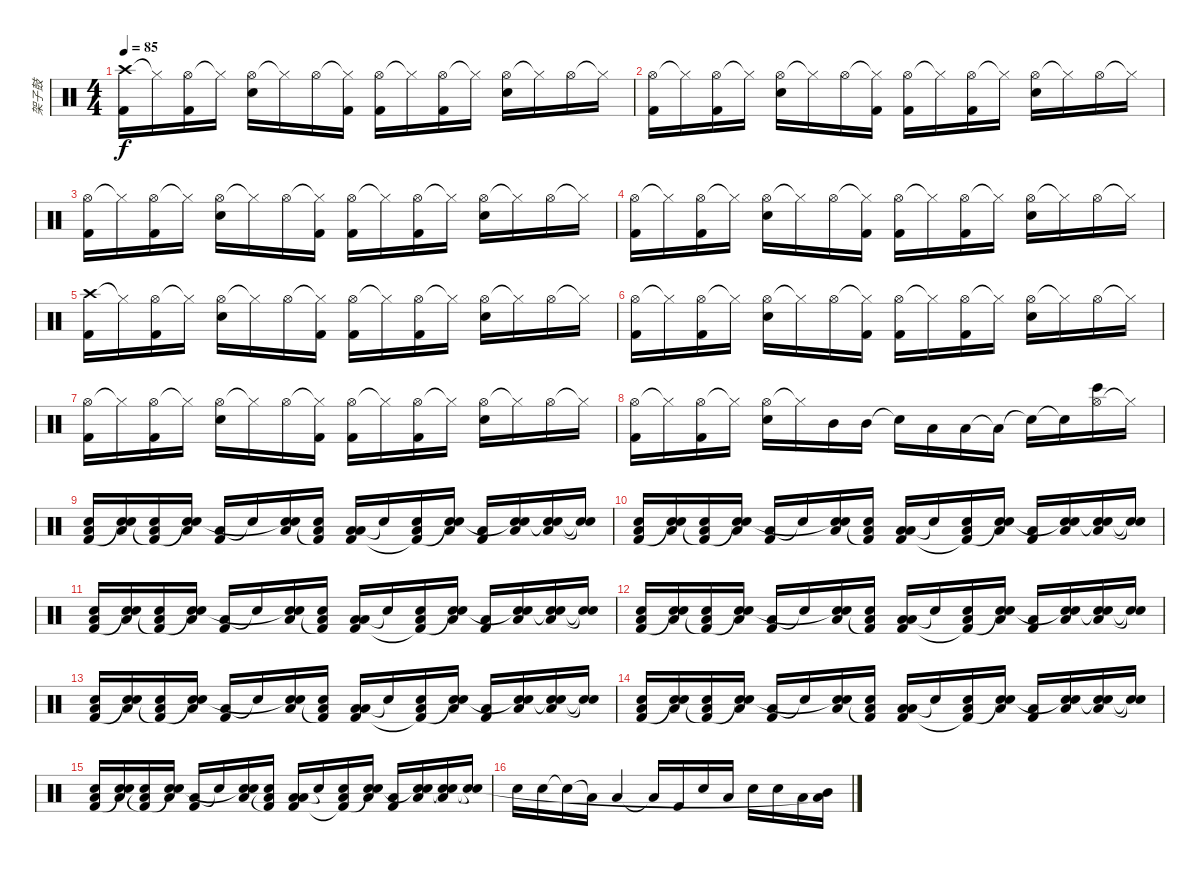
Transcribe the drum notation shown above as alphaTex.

\track ("架子鼓" "架子鼓") {instrument percussion}
\staff {score}
\articulation defaults
\ts (4 4)
\tempo 85
\clef neutral
\ks c
("Crash high (hit)" "Kick (hit) 2").16{dy f} "Hi-Hat (closed)"{t}.16 ("Hi-Hat (open)" "Kick (hit) 2").16 "Hi-Hat (closed)"{t}.16 ("Hi-Hat (open)" "Snare (hit) 2").16 "Hi-Hat (closed)"{t}.16 "Hi-Hat (open)".16 ("Hi-Hat (closed)"{t} "Kick (hit) 2").16 ("Hi-Hat (open)" "Kick (hit) 2").16 "Hi-Hat (closed)"{t}.16 ("Hi-Hat (open)" "Kick (hit) 2").16 "Hi-Hat (closed)"{t}.16 ("Hi-Hat (open)" "Snare (hit) 2").16 "Hi-Hat (closed)"{t}.16 "Hi-Hat (open)".16 "Hi-Hat (closed)"{t}.16 |
("Hi-Hat (open)" "Kick (hit) 2").16 "Hi-Hat (closed)"{t}.16 ("Hi-Hat (open)" "Kick (hit) 2").16 "Hi-Hat (closed)"{t}.16 ("Hi-Hat (open)" "Snare (hit) 2").16 "Hi-Hat (closed)"{t}.16 "Hi-Hat (open)".16 ("Hi-Hat (closed)"{t} "Kick (hit) 2").16 ("Hi-Hat (open)" "Kick (hit) 2").16 "Hi-Hat (closed)"{t}.16 ("Hi-Hat (open)" "Kick (hit) 2").16 "Hi-Hat (closed)"{t}.16 ("Hi-Hat (open)" "Snare (hit) 2").16 "Hi-Hat (closed)"{t}.16 "Hi-Hat (open)".16 "Hi-Hat (closed)"{t}.16 |
("Hi-Hat (open)" "Kick (hit) 2").16 "Hi-Hat (closed)"{t}.16 ("Hi-Hat (open)" "Kick (hit) 2").16 "Hi-Hat (closed)"{t}.16 ("Hi-Hat (open)" "Snare (hit) 2").16 "Hi-Hat (closed)"{t}.16 "Hi-Hat (open)".16 ("Hi-Hat (closed)"{t} "Kick (hit) 2").16 ("Hi-Hat (open)" "Kick (hit) 2").16 "Hi-Hat (closed)"{t}.16 ("Hi-Hat (open)" "Kick (hit) 2").16 "Hi-Hat (closed)"{t}.16 ("Hi-Hat (open)" "Snare (hit) 2").16 "Hi-Hat (closed)"{t}.16 "Hi-Hat (open)".16 "Hi-Hat (closed)"{t}.16 |
("Hi-Hat (open)" "Kick (hit) 2").16 "Hi-Hat (closed)"{t}.16 ("Hi-Hat (open)" "Kick (hit) 2").16 "Hi-Hat (closed)"{t}.16 ("Hi-Hat (open)" "Snare (hit) 2").16 "Hi-Hat (closed)"{t}.16 "Hi-Hat (open)".16 ("Hi-Hat (closed)"{t} "Kick (hit) 2").16 ("Hi-Hat (open)" "Kick (hit) 2").16 "Hi-Hat (closed)"{t}.16 ("Hi-Hat (open)" "Kick (hit) 2").16 "Hi-Hat (closed)"{t}.16 ("Hi-Hat (open)" "Snare (hit) 2").16 "Hi-Hat (closed)"{t}.16 "Hi-Hat (open)".16 "Hi-Hat (closed)"{t}.16 |
("Crash high (hit)" "Kick (hit) 2").16 "Hi-Hat (closed)"{t}.16 ("Hi-Hat (open)" "Kick (hit) 2").16 "Hi-Hat (closed)"{t}.16 ("Hi-Hat (open)" "Snare (hit) 2").16 "Hi-Hat (closed)"{t}.16 "Hi-Hat (open)".16 ("Hi-Hat (closed)"{t} "Kick (hit) 2").16 ("Hi-Hat (open)" "Kick (hit) 2").16 "Hi-Hat (closed)"{t}.16 ("Hi-Hat (open)" "Kick (hit) 2").16 "Hi-Hat (closed)"{t}.16 ("Hi-Hat (open)" "Snare (hit) 2").16 "Hi-Hat (closed)"{t}.16 "Hi-Hat (open)".16 "Hi-Hat (closed)"{t}.16 |
("Hi-Hat (open)" "Kick (hit) 2").16 "Hi-Hat (closed)"{t}.16 ("Hi-Hat (open)" "Kick (hit) 2").16 "Hi-Hat (closed)"{t}.16 ("Hi-Hat (open)" "Snare (hit) 2").16 "Hi-Hat (closed)"{t}.16 "Hi-Hat (open)".16 ("Hi-Hat (closed)"{t} "Kick (hit) 2").16 ("Hi-Hat (open)" "Kick (hit) 2").16 "Hi-Hat (closed)"{t}.16 ("Hi-Hat (open)" "Kick (hit) 2").16 "Hi-Hat (closed)"{t}.16 ("Hi-Hat (open)" "Snare (hit) 2").16 "Hi-Hat (closed)"{t}.16 "Hi-Hat (open)".16 "Hi-Hat (closed)"{t}.16 |
("Hi-Hat (open)" "Kick (hit) 2").16 "Hi-Hat (closed)"{t}.16 ("Hi-Hat (open)" "Kick (hit) 2").16 "Hi-Hat (closed)"{t}.16 ("Hi-Hat (open)" "Snare (hit) 2").16 "Hi-Hat (closed)"{t}.16 "Hi-Hat (open)".16 ("Hi-Hat (closed)"{t} "Kick (hit) 2").16 ("Hi-Hat (open)" "Kick (hit) 2").16 "Hi-Hat (closed)"{t}.16 ("Hi-Hat (open)" "Kick (hit) 2").16 "Hi-Hat (closed)"{t}.16 ("Hi-Hat (open)" "Snare (hit) 2").16 "Hi-Hat (closed)"{t}.16 "Hi-Hat (open)".16 "Hi-Hat (closed)"{t}.16 |
("Hi-Hat (open)" "Kick (hit) 2").16 "Hi-Hat (closed)"{t}.16 ("Hi-Hat (open)" "Kick (hit) 2").16 "Hi-Hat (closed)"{t}.16 ("Hi-Hat (open)" "Snare (hit) 2").16 "Hi-Hat (closed)"{t}.16 "Mid Tom (hit)".16 "Mid Tom (hit)".16 "Snare (hit)"{t}.16 "Low Tom (hit)".16 "Low Tom (hit)".16 "Low Tom (hit)"{t}.16 "Snare (hit) 2"{t}.16 "Snare (hit)"{t}.16 ("Hi-Hat (open)" "Bongo High (hit)").16 "Hi-Hat (closed)"{t}.16 |
("Low Floor Tom (hit)" "Snare (hit) 2" "Kick (hit) 2").16 ("Low Floor Tom (hit)" "Snare (hit) 2" "Snare (hit)"{t}).16 ("Low Floor Tom (hit)" "Snare (hit) 2" "Kick (hit) 2"{t}).16 ("Low Floor Tom (hit)" "Snare (hit) 2" "Snare (hit)"{t}).16 ("Low Floor Tom (hit)" "Kick (hit) 2").16 "Snare (hit)"{t}.16 ("Low Floor Tom (hit)" "Snare (hit) 2" "Snare (hit)"{t}).16 ("Low Floor Tom (hit)" "Snare (hit) 2" "Kick (hit) 2"{t}).16 ("Low Floor Tom (hit)" "Low Floor Tom (hit)" "Kick (hit) 2").16 "Snare (hit)"{t}.16 ("Low Floor Tom (hit)" "Snare (hit) 2" "Kick (hit) 2"{t}).16 ("Low Floor Tom (hit)" "Snare (hit) 2" "Snare (hit)"{t}).16 ("Low Floor Tom (hit)" "Kick (hit) 2").16 ("Low Floor Tom (hit)" "Snare (hit) 2" "Snare (hit)"{t}).16 ("Low Floor Tom (hit)" "Snare (hit) 2" "Snare (hit)"{t}).16 ("Snare (hit) 2"{t} "Snare (hit)"{t}).16 |
("Low Floor Tom (hit)" "Snare (hit) 2" "Kick (hit) 2").16 ("Low Floor Tom (hit)" "Snare (hit) 2" "Snare (hit)"{t}).16 ("Low Floor Tom (hit)" "Snare (hit) 2" "Kick (hit) 2"{t}).16 ("Low Floor Tom (hit)" "Snare (hit) 2" "Snare (hit)"{t}).16 ("Low Floor Tom (hit)" "Kick (hit) 2").16 "Snare (hit)"{t}.16 ("Low Floor Tom (hit)" "Snare (hit) 2" "Snare (hit)"{t}).16 ("Low Floor Tom (hit)" "Snare (hit) 2" "Kick (hit) 2"{t}).16 ("Low Floor Tom (hit)" "Low Floor Tom (hit)" "Kick (hit) 2").16 "Snare (hit)"{t}.16 ("Low Floor Tom (hit)" "Snare (hit) 2" "Kick (hit) 2"{t}).16 ("Low Floor Tom (hit)" "Snare (hit) 2" "Snare (hit)"{t}).16 ("Low Floor Tom (hit)" "Kick (hit) 2").16 ("Low Floor Tom (hit)" "Snare (hit) 2" "Snare (hit)"{t}).16 ("Low Floor Tom (hit)" "Snare (hit) 2" "Snare (hit)"{t}).16 ("Snare (hit) 2"{t} "Snare (hit)"{t}).16 |
("Low Floor Tom (hit)" "Snare (hit) 2" "Kick (hit) 2").16 ("Low Floor Tom (hit)" "Snare (hit) 2" "Snare (hit)"{t}).16 ("Low Floor Tom (hit)" "Snare (hit) 2" "Kick (hit) 2"{t}).16 ("Low Floor Tom (hit)" "Snare (hit) 2" "Snare (hit)"{t}).16 ("Low Floor Tom (hit)" "Kick (hit) 2").16 "Snare (hit)"{t}.16 ("Low Floor Tom (hit)" "Snare (hit) 2" "Snare (hit)"{t}).16 ("Low Floor Tom (hit)" "Snare (hit) 2" "Kick (hit) 2"{t}).16 ("Low Floor Tom (hit)" "Low Floor Tom (hit)" "Kick (hit) 2").16 "Snare (hit)"{t}.16 ("Low Floor Tom (hit)" "Snare (hit) 2" "Kick (hit) 2"{t}).16 ("Low Floor Tom (hit)" "Snare (hit) 2" "Snare (hit)"{t}).16 ("Low Floor Tom (hit)" "Kick (hit) 2").16 ("Low Floor Tom (hit)" "Snare (hit) 2" "Snare (hit)"{t}).16 ("Low Floor Tom (hit)" "Snare (hit) 2" "Snare (hit)"{t}).16 ("Snare (hit) 2"{t} "Snare (hit)"{t}).16 |
("Low Floor Tom (hit)" "Snare (hit) 2" "Kick (hit) 2").16 ("Low Floor Tom (hit)" "Snare (hit) 2" "Snare (hit)"{t}).16 ("Low Floor Tom (hit)" "Snare (hit) 2" "Kick (hit) 2"{t}).16 ("Low Floor Tom (hit)" "Snare (hit) 2" "Snare (hit)"{t}).16 ("Low Floor Tom (hit)" "Kick (hit) 2").16 "Snare (hit)"{t}.16 ("Low Floor Tom (hit)" "Snare (hit) 2" "Snare (hit)"{t}).16 ("Low Floor Tom (hit)" "Snare (hit) 2" "Kick (hit) 2"{t}).16 ("Low Floor Tom (hit)" "Low Floor Tom (hit)" "Kick (hit) 2").16 "Snare (hit)"{t}.16 ("Low Floor Tom (hit)" "Snare (hit) 2" "Kick (hit) 2"{t}).16 ("Low Floor Tom (hit)" "Snare (hit) 2" "Snare (hit)"{t}).16 ("Low Floor Tom (hit)" "Kick (hit) 2").16 ("Low Floor Tom (hit)" "Snare (hit) 2" "Snare (hit)"{t}).16 ("Low Floor Tom (hit)" "Snare (hit) 2" "Snare (hit)"{t}).16 ("Snare (hit) 2"{t} "Snare (hit)"{t}).16 |
("Low Floor Tom (hit)" "Snare (hit) 2" "Kick (hit) 2").16 ("Low Floor Tom (hit)" "Snare (hit) 2" "Snare (hit)"{t}).16 ("Low Floor Tom (hit)" "Snare (hit) 2" "Kick (hit) 2"{t}).16 ("Low Floor Tom (hit)" "Snare (hit) 2" "Snare (hit)"{t}).16 ("Low Floor Tom (hit)" "Kick (hit) 2").16 "Snare (hit)"{t}.16 ("Low Floor Tom (hit)" "Snare (hit) 2" "Snare (hit)"{t}).16 ("Low Floor Tom (hit)" "Snare (hit) 2" "Kick (hit) 2"{t}).16 ("Low Floor Tom (hit)" "Low Floor Tom (hit)" "Kick (hit) 2").16 "Snare (hit)"{t}.16 ("Low Floor Tom (hit)" "Snare (hit) 2" "Kick (hit) 2"{t}).16 ("Low Floor Tom (hit)" "Snare (hit) 2" "Snare (hit)"{t}).16 ("Low Floor Tom (hit)" "Kick (hit) 2").16 ("Low Floor Tom (hit)" "Snare (hit) 2" "Snare (hit)"{t}).16 ("Low Floor Tom (hit)" "Snare (hit) 2" "Snare (hit)"{t}).16 ("Snare (hit) 2"{t} "Snare (hit)"{t}).16 |
("Low Floor Tom (hit)" "Snare (hit) 2" "Kick (hit) 2").16 ("Low Floor Tom (hit)" "Snare (hit) 2" "Snare (hit)"{t}).16 ("Low Floor Tom (hit)" "Snare (hit) 2" "Kick (hit) 2"{t}).16 ("Low Floor Tom (hit)" "Snare (hit) 2" "Snare (hit)"{t}).16 ("Low Floor Tom (hit)" "Kick (hit) 2").16 "Snare (hit)"{t}.16 ("Low Floor Tom (hit)" "Snare (hit) 2" "Snare (hit)"{t}).16 ("Low Floor Tom (hit)" "Snare (hit) 2" "Kick (hit) 2"{t}).16 ("Low Floor Tom (hit)" "Low Floor Tom (hit)" "Kick (hit) 2").16 "Snare (hit)"{t}.16 ("Low Floor Tom (hit)" "Snare (hit) 2" "Kick (hit) 2"{t}).16 ("Low Floor Tom (hit)" "Snare (hit) 2" "Snare (hit)"{t}).16 ("Low Floor Tom (hit)" "Kick (hit) 2").16 ("Low Floor Tom (hit)" "Snare (hit) 2" "Snare (hit)"{t}).16 ("Low Floor Tom (hit)" "Snare (hit) 2" "Snare (hit)"{t}).16 ("Snare (hit) 2"{t} "Snare (hit)"{t}).16 |
("Low Floor Tom (hit)" "Snare (hit) 2" "Kick (hit) 2").16 ("Low Floor Tom (hit)" "Snare (hit) 2" "Snare (hit)"{t}).16 ("Low Floor Tom (hit)" "Snare (hit) 2" "Kick (hit) 2"{t}).16 ("Low Floor Tom (hit)" "Snare (hit) 2" "Snare (hit)"{t}).16 ("Low Floor Tom (hit)" "Kick (hit) 2").16 "Snare (hit)"{t}.16 ("Low Floor Tom (hit)" "Snare (hit) 2" "Snare (hit)"{t}).16 ("Low Floor Tom (hit)" "Snare (hit) 2" "Kick (hit) 2"{t}).16 ("Low Floor Tom (hit)" "Low Floor Tom (hit)" "Kick (hit) 2").16 "Snare (hit)"{t}.16 ("Low Floor Tom (hit)" "Snare (hit) 2" "Kick (hit) 2"{t}).16 ("Low Floor Tom (hit)" "Snare (hit) 2" "Snare (hit)"{t}).16 ("Low Floor Tom (hit)" "Kick (hit) 2").16 ("Low Floor Tom (hit)" "Snare (hit) 2" "Snare (hit)"{t}).16 ("Low Floor Tom (hit)" "Snare (hit) 2" "Snare (hit)"{t}).16 ("Snare (hit) 2"{t} "Snare (hit)"{t}).16 |
"Snare (hit) 2".16 "Snare (hit) 2".16 "Snare (hit) 2"{t}.16 "Low Tom (hit)"{t}.16 "Low Tom (hit)".4 "Low Tom (hit)"{t}.16 "Kick (hit) 2".16 "Snare (hit) 2".16 "Low Tom (hit)".16 "Snare (hit) 2".16 "Snare (hit) 2".16 "Low Tom (hit)".16 ("Mid Tom (hit)" "Low Tom (hit)"{t}).16
